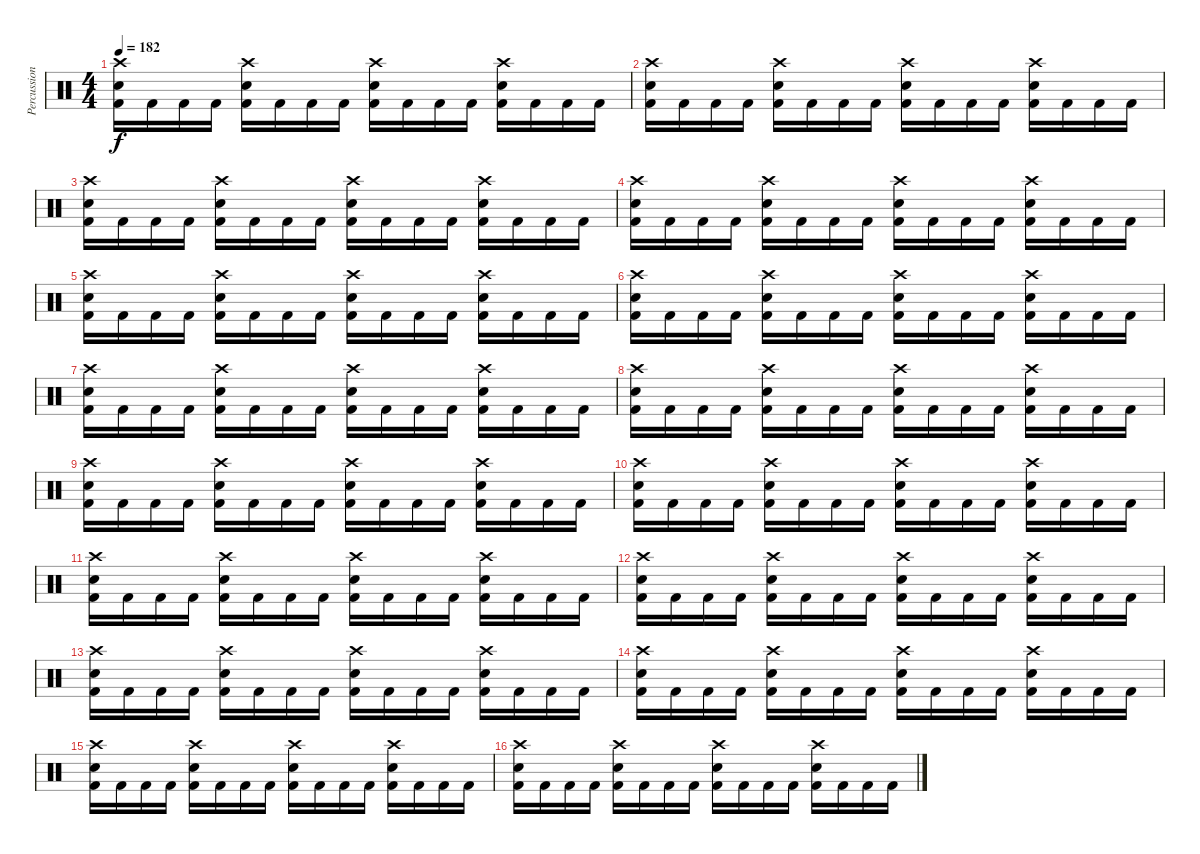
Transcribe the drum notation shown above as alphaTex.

\track ("Percussion" "Percussion") {instrument percussion}
\staff {score}
\articulation defaults
\ts (4 4)
\tempo 182
\clef neutral
\ks c
("Crash high (hit)" "Snare (hit) 2" "Kick (hit) 2").16{dy f} "Kick (hit) 2".16 "Kick (hit) 2".16 "Kick (hit) 2".16 ("Crash high (hit)" "Snare (hit) 2" "Kick (hit) 2").16 "Kick (hit) 2".16 "Kick (hit) 2".16 "Kick (hit) 2".16 ("Crash high (hit)" "Snare (hit) 2" "Kick (hit) 2").16 "Kick (hit) 2".16 "Kick (hit) 2".16 "Kick (hit) 2".16 ("Crash high (hit)" "Snare (hit) 2" "Kick (hit) 2").16 "Kick (hit) 2".16 "Kick (hit) 2".16 "Kick (hit) 2".16 |
("Crash high (hit)" "Snare (hit) 2" "Kick (hit) 2").16 "Kick (hit) 2".16 "Kick (hit) 2".16 "Kick (hit) 2".16 ("Crash high (hit)" "Snare (hit) 2" "Kick (hit) 2").16 "Kick (hit) 2".16 "Kick (hit) 2".16 "Kick (hit) 2".16 ("Crash high (hit)" "Snare (hit) 2" "Kick (hit) 2").16 "Kick (hit) 2".16 "Kick (hit) 2".16 "Kick (hit) 2".16 ("Crash high (hit)" "Snare (hit) 2" "Kick (hit) 2").16 "Kick (hit) 2".16 "Kick (hit) 2".16 "Kick (hit) 2".16 |
("Crash high (hit)" "Snare (hit) 2" "Kick (hit) 2").16 "Kick (hit) 2".16 "Kick (hit) 2".16 "Kick (hit) 2".16 ("Crash high (hit)" "Snare (hit) 2" "Kick (hit) 2").16 "Kick (hit) 2".16 "Kick (hit) 2".16 "Kick (hit) 2".16 ("Crash high (hit)" "Snare (hit) 2" "Kick (hit) 2").16 "Kick (hit) 2".16 "Kick (hit) 2".16 "Kick (hit) 2".16 ("Crash high (hit)" "Snare (hit) 2" "Kick (hit) 2").16 "Kick (hit) 2".16 "Kick (hit) 2".16 "Kick (hit) 2".16 |
("Crash high (hit)" "Snare (hit) 2" "Kick (hit) 2").16 "Kick (hit) 2".16 "Kick (hit) 2".16 "Kick (hit) 2".16 ("Crash high (hit)" "Snare (hit) 2" "Kick (hit) 2").16 "Kick (hit) 2".16 "Kick (hit) 2".16 "Kick (hit) 2".16 ("Crash high (hit)" "Snare (hit) 2" "Kick (hit) 2").16 "Kick (hit) 2".16 "Kick (hit) 2".16 "Kick (hit) 2".16 ("Crash high (hit)" "Snare (hit) 2" "Kick (hit) 2").16 "Kick (hit) 2".16 "Kick (hit) 2".16 "Kick (hit) 2".16 |
("Crash high (hit)" "Snare (hit) 2" "Kick (hit) 2").16 "Kick (hit) 2".16 "Kick (hit) 2".16 "Kick (hit) 2".16 ("Crash high (hit)" "Snare (hit) 2" "Kick (hit) 2").16 "Kick (hit) 2".16 "Kick (hit) 2".16 "Kick (hit) 2".16 ("Crash high (hit)" "Snare (hit) 2" "Kick (hit) 2").16 "Kick (hit) 2".16 "Kick (hit) 2".16 "Kick (hit) 2".16 ("Crash high (hit)" "Snare (hit) 2" "Kick (hit) 2").16 "Kick (hit) 2".16 "Kick (hit) 2".16 "Kick (hit) 2".16 |
("Crash high (hit)" "Snare (hit) 2" "Kick (hit) 2").16 "Kick (hit) 2".16 "Kick (hit) 2".16 "Kick (hit) 2".16 ("Crash high (hit)" "Snare (hit) 2" "Kick (hit) 2").16 "Kick (hit) 2".16 "Kick (hit) 2".16 "Kick (hit) 2".16 ("Crash high (hit)" "Snare (hit) 2" "Kick (hit) 2").16 "Kick (hit) 2".16 "Kick (hit) 2".16 "Kick (hit) 2".16 ("Crash high (hit)" "Snare (hit) 2" "Kick (hit) 2").16 "Kick (hit) 2".16 "Kick (hit) 2".16 "Kick (hit) 2".16 |
("Crash high (hit)" "Snare (hit) 2" "Kick (hit) 2").16 "Kick (hit) 2".16 "Kick (hit) 2".16 "Kick (hit) 2".16 ("Crash high (hit)" "Snare (hit) 2" "Kick (hit) 2").16 "Kick (hit) 2".16 "Kick (hit) 2".16 "Kick (hit) 2".16 ("Crash high (hit)" "Snare (hit) 2" "Kick (hit) 2").16 "Kick (hit) 2".16 "Kick (hit) 2".16 "Kick (hit) 2".16 ("Crash high (hit)" "Snare (hit) 2" "Kick (hit) 2").16 "Kick (hit) 2".16 "Kick (hit) 2".16 "Kick (hit) 2".16 |
("Crash high (hit)" "Snare (hit) 2" "Kick (hit) 2").16 "Kick (hit) 2".16 "Kick (hit) 2".16 "Kick (hit) 2".16 ("Crash high (hit)" "Snare (hit) 2" "Kick (hit) 2").16 "Kick (hit) 2".16 "Kick (hit) 2".16 "Kick (hit) 2".16 ("Crash high (hit)" "Snare (hit) 2" "Kick (hit) 2").16 "Kick (hit) 2".16 "Kick (hit) 2".16 "Kick (hit) 2".16 ("Crash high (hit)" "Snare (hit) 2" "Kick (hit) 2").16 "Kick (hit) 2".16 "Kick (hit) 2".16 "Kick (hit) 2".16 |
("Crash high (hit)" "Snare (hit) 2" "Kick (hit) 2").16 "Kick (hit) 2".16 "Kick (hit) 2".16 "Kick (hit) 2".16 ("Crash high (hit)" "Snare (hit) 2" "Kick (hit) 2").16 "Kick (hit) 2".16 "Kick (hit) 2".16 "Kick (hit) 2".16 ("Crash high (hit)" "Snare (hit) 2" "Kick (hit) 2").16 "Kick (hit) 2".16 "Kick (hit) 2".16 "Kick (hit) 2".16 ("Crash high (hit)" "Snare (hit) 2" "Kick (hit) 2").16 "Kick (hit) 2".16 "Kick (hit) 2".16 "Kick (hit) 2".16 |
("Crash high (hit)" "Snare (hit) 2" "Kick (hit) 2").16 "Kick (hit) 2".16 "Kick (hit) 2".16 "Kick (hit) 2".16 ("Crash high (hit)" "Snare (hit) 2" "Kick (hit) 2").16 "Kick (hit) 2".16 "Kick (hit) 2".16 "Kick (hit) 2".16 ("Crash high (hit)" "Snare (hit) 2" "Kick (hit) 2").16 "Kick (hit) 2".16 "Kick (hit) 2".16 "Kick (hit) 2".16 ("Crash high (hit)" "Snare (hit) 2" "Kick (hit) 2").16 "Kick (hit) 2".16 "Kick (hit) 2".16 "Kick (hit) 2".16 |
("Crash high (hit)" "Snare (hit) 2" "Kick (hit) 2").16 "Kick (hit) 2".16 "Kick (hit) 2".16 "Kick (hit) 2".16 ("Crash high (hit)" "Snare (hit) 2" "Kick (hit) 2").16 "Kick (hit) 2".16 "Kick (hit) 2".16 "Kick (hit) 2".16 ("Crash high (hit)" "Snare (hit) 2" "Kick (hit) 2").16 "Kick (hit) 2".16 "Kick (hit) 2".16 "Kick (hit) 2".16 ("Crash high (hit)" "Snare (hit) 2" "Kick (hit) 2").16 "Kick (hit) 2".16 "Kick (hit) 2".16 "Kick (hit) 2".16 |
("Crash high (hit)" "Snare (hit) 2" "Kick (hit) 2").16 "Kick (hit) 2".16 "Kick (hit) 2".16 "Kick (hit) 2".16 ("Crash high (hit)" "Snare (hit) 2" "Kick (hit) 2").16 "Kick (hit) 2".16 "Kick (hit) 2".16 "Kick (hit) 2".16 ("Crash high (hit)" "Snare (hit) 2" "Kick (hit) 2").16 "Kick (hit) 2".16 "Kick (hit) 2".16 "Kick (hit) 2".16 ("Crash high (hit)" "Snare (hit) 2" "Kick (hit) 2").16 "Kick (hit) 2".16 "Kick (hit) 2".16 "Kick (hit) 2".16 |
("Crash high (hit)" "Snare (hit) 2" "Kick (hit) 2").16 "Kick (hit) 2".16 "Kick (hit) 2".16 "Kick (hit) 2".16 ("Crash high (hit)" "Snare (hit) 2" "Kick (hit) 2").16 "Kick (hit) 2".16 "Kick (hit) 2".16 "Kick (hit) 2".16 ("Crash high (hit)" "Snare (hit) 2" "Kick (hit) 2").16 "Kick (hit) 2".16 "Kick (hit) 2".16 "Kick (hit) 2".16 ("Crash high (hit)" "Snare (hit) 2" "Kick (hit) 2").16 "Kick (hit) 2".16 "Kick (hit) 2".16 "Kick (hit) 2".16 |
("Crash high (hit)" "Snare (hit) 2" "Kick (hit) 2").16 "Kick (hit) 2".16 "Kick (hit) 2".16 "Kick (hit) 2".16 ("Crash high (hit)" "Snare (hit) 2" "Kick (hit) 2").16 "Kick (hit) 2".16 "Kick (hit) 2".16 "Kick (hit) 2".16 ("Crash high (hit)" "Snare (hit) 2" "Kick (hit) 2").16 "Kick (hit) 2".16 "Kick (hit) 2".16 "Kick (hit) 2".16 ("Crash high (hit)" "Snare (hit) 2" "Kick (hit) 2").16 "Kick (hit) 2".16 "Kick (hit) 2".16 "Kick (hit) 2".16 |
("Crash high (hit)" "Snare (hit) 2" "Kick (hit) 2").16 "Kick (hit) 2".16 "Kick (hit) 2".16 "Kick (hit) 2".16 ("Crash high (hit)" "Snare (hit) 2" "Kick (hit) 2").16 "Kick (hit) 2".16 "Kick (hit) 2".16 "Kick (hit) 2".16 ("Crash high (hit)" "Snare (hit) 2" "Kick (hit) 2").16 "Kick (hit) 2".16 "Kick (hit) 2".16 "Kick (hit) 2".16 ("Crash high (hit)" "Snare (hit) 2" "Kick (hit) 2").16 "Kick (hit) 2".16 "Kick (hit) 2".16 "Kick (hit) 2".16 |
("Crash high (hit)" "Snare (hit) 2" "Kick (hit) 2").16 "Kick (hit) 2".16 "Kick (hit) 2".16 "Kick (hit) 2".16 ("Crash high (hit)" "Snare (hit) 2" "Kick (hit) 2").16 "Kick (hit) 2".16 "Kick (hit) 2".16 "Kick (hit) 2".16 ("Crash high (hit)" "Snare (hit) 2" "Kick (hit) 2").16 "Kick (hit) 2".16 "Kick (hit) 2".16 "Kick (hit) 2".16 ("Crash high (hit)" "Snare (hit) 2" "Kick (hit) 2").16 "Kick (hit) 2".16 "Kick (hit) 2".16 "Kick (hit) 2".16
